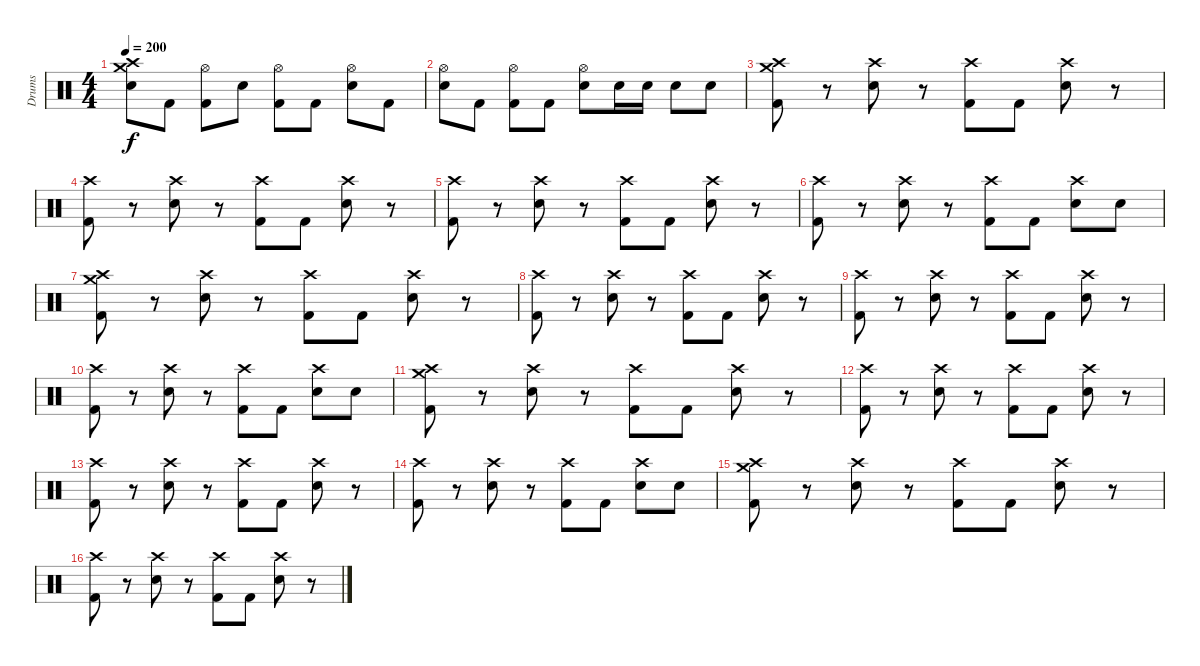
\track ("Drums" "Drums") {instrument percussion}
\staff {score}
\articulation defaults
\ts (4 4)
\tempo 200
\clef neutral
\ks c
("Crash high (hit)" "Crash medium (hit)" "Snare (hit) 2").8{dy f} "Kick (hit) 2".8 ("Hi-Hat (open)" "Kick (hit) 2").8 "Snare (hit) 2".8 ("Hi-Hat (open)" "Kick (hit) 2").8 "Kick (hit) 2".8 ("Hi-Hat (open)" "Snare (hit) 2").8 "Kick (hit) 2".8 |
("Hi-Hat (open)" "Snare (hit) 2").8 "Kick (hit) 2".8 ("Hi-Hat (open)" "Kick (hit) 2").8 "Kick (hit) 2".8 ("Hi-Hat (open)" "Snare (hit) 2").8 "Snare (hit) 2".16 "Snare (hit) 2".16 "Snare (hit) 2".8 "Snare (hit) 2".8 |
("Crash high (hit)" "Crash medium (hit)" "Kick (hit) 2").8 r.8 ("Crash high (hit)" "Snare (hit) 2").8 r.8 ("Crash high (hit)" "Kick (hit) 2").8 "Kick (hit) 2".8 ("Crash high (hit)" "Snare (hit) 2").8 r.8 |
("Crash high (hit)" "Kick (hit) 2").8 r.8 ("Crash high (hit)" "Snare (hit) 2").8 r.8 ("Crash high (hit)" "Kick (hit) 2").8 "Kick (hit) 2".8 ("Crash high (hit)" "Snare (hit) 2").8 r.8 |
("Crash high (hit)" "Kick (hit) 2").8 r.8 ("Crash high (hit)" "Snare (hit) 2").8 r.8 ("Crash high (hit)" "Kick (hit) 2").8 "Kick (hit) 2".8 ("Crash high (hit)" "Snare (hit) 2").8 r.8 |
("Crash high (hit)" "Kick (hit) 2").8 r.8 ("Crash high (hit)" "Snare (hit) 2").8 r.8 ("Crash high (hit)" "Kick (hit) 2").8 "Kick (hit) 2".8 ("Crash high (hit)" "Snare (hit) 2").8 "Snare (hit) 2".8 |
("Crash high (hit)" "Crash medium (hit)" "Kick (hit) 2").8 r.8 ("Crash high (hit)" "Snare (hit) 2").8 r.8 ("Crash high (hit)" "Kick (hit) 2").8 "Kick (hit) 2".8 ("Crash high (hit)" "Snare (hit) 2").8 r.8 |
("Crash high (hit)" "Kick (hit) 2").8 r.8 ("Crash high (hit)" "Snare (hit) 2").8 r.8 ("Crash high (hit)" "Kick (hit) 2").8 "Kick (hit) 2".8 ("Crash high (hit)" "Snare (hit) 2").8 r.8 |
("Crash high (hit)" "Kick (hit) 2").8 r.8 ("Crash high (hit)" "Snare (hit) 2").8 r.8 ("Crash high (hit)" "Kick (hit) 2").8 "Kick (hit) 2".8 ("Crash high (hit)" "Snare (hit) 2").8 r.8 |
("Crash high (hit)" "Kick (hit) 2").8 r.8 ("Crash high (hit)" "Snare (hit) 2").8 r.8 ("Crash high (hit)" "Kick (hit) 2").8 "Kick (hit) 2".8 ("Crash high (hit)" "Snare (hit) 2").8 "Snare (hit) 2".8 |
("Crash high (hit)" "Crash medium (hit)" "Kick (hit) 2").8 r.8 ("Crash high (hit)" "Snare (hit) 2").8 r.8 ("Crash high (hit)" "Kick (hit) 2").8 "Kick (hit) 2".8 ("Crash high (hit)" "Snare (hit) 2").8 r.8 |
("Crash high (hit)" "Kick (hit) 2").8 r.8 ("Crash high (hit)" "Snare (hit) 2").8 r.8 ("Crash high (hit)" "Kick (hit) 2").8 "Kick (hit) 2".8 ("Crash high (hit)" "Snare (hit) 2").8 r.8 |
("Crash high (hit)" "Kick (hit) 2").8 r.8 ("Crash high (hit)" "Snare (hit) 2").8 r.8 ("Crash high (hit)" "Kick (hit) 2").8 "Kick (hit) 2".8 ("Crash high (hit)" "Snare (hit) 2").8 r.8 |
("Crash high (hit)" "Kick (hit) 2").8 r.8 ("Crash high (hit)" "Snare (hit) 2").8 r.8 ("Crash high (hit)" "Kick (hit) 2").8 "Kick (hit) 2".8 ("Crash high (hit)" "Snare (hit) 2").8 "Snare (hit) 2".8 |
("Crash high (hit)" "Crash medium (hit)" "Kick (hit) 2").8 r.8 ("Crash high (hit)" "Snare (hit) 2").8 r.8 ("Crash high (hit)" "Kick (hit) 2").8 "Kick (hit) 2".8 ("Crash high (hit)" "Snare (hit) 2").8 r.8 |
("Crash high (hit)" "Kick (hit) 2").8 r.8 ("Crash high (hit)" "Snare (hit) 2").8 r.8 ("Crash high (hit)" "Kick (hit) 2").8 "Kick (hit) 2".8 ("Crash high (hit)" "Snare (hit) 2").8 r.8
